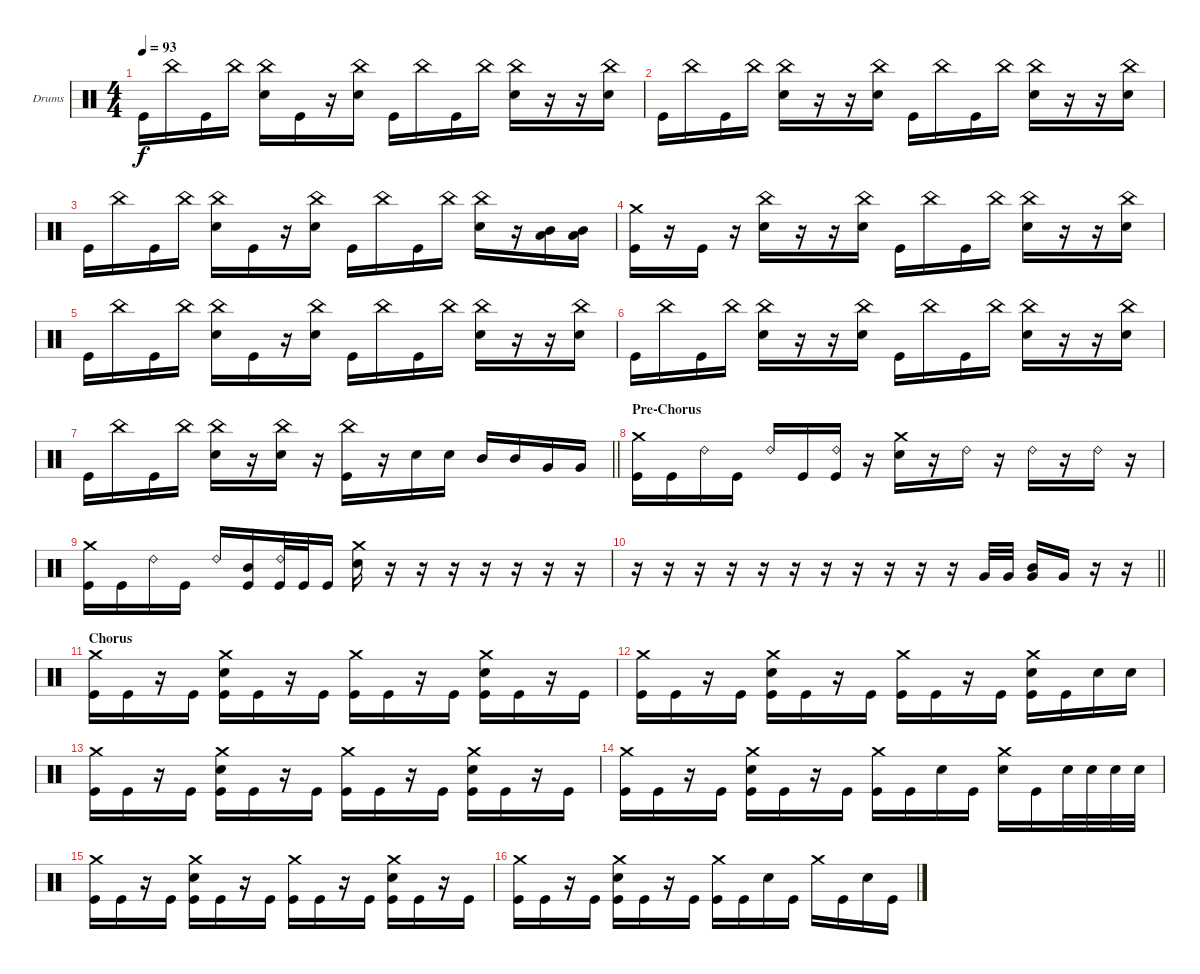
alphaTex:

\bracketExtendMode groupsimilarinstruments
\firstSystemTrackNameOrientation horizontal
\otherSystemsTrackNameOrientation horizontal
\track ("Drumkit" "Drums") {instrument percussion}
\staff {score}
\articulation defaults
\ts (4 4)
\tempo 93
\clef neutral
\scale
0.333333
\ks c "Kick (hit)".16{dy f} "China (hit)".16 "Kick (hit)".16 "China (hit)".16
("Snare (hit) 2" "China (hit)").16 "Kick (hit)".16 r.16 ("Snare (hit) 2" "China (hit)").16 "Kick (hit)".16 "China (hit)".16 "Kick (hit)".16 "China (hit)".16 ("Snare (hit) 2" "China (hit)").16 r.16 r.16 ("Snare (hit) 2" "China (hit)").16 |
\scale
0.333333 "Kick (hit)".16 "China (hit)".16 "Kick (hit)".16 "China (hit)".16 ("Snare (hit) 2" "China (hit)").16 r.16 r.16 ("Snare (hit) 2" "China (hit)").16 "Kick (hit)".16 "China (hit)".16 "Kick (hit)".16 "China (hit)".16 ("Snare (hit) 2" "China (hit)").16 r.16 r.16 ("Snare (hit) 2" "China (hit)").16 |
\scale
0.333333 "Kick (hit)".16 "China (hit)".16 "Kick (hit)".16 "China (hit)".16 ("Snare (hit) 2" "China (hit)").16 "Kick (hit)".16 r.16 ("Snare (hit) 2" "China (hit)").16 "Kick (hit)".16 "China (hit)".16 "Kick (hit)".16 "China (hit)".16 ("Snare (hit) 2" "China (hit)").16 r.16 ("Low Tom (hit)" "Mid Tom (hit)").16 ("Low Tom (hit)" "Mid Tom (hit)").16 |
\scale
0.333333 ("Kick (hit)" "Crash medium (hit)").16 r.16 "Kick (hit)".16 r.16 ("Snare (hit) 2" "China (hit)").16 r.16 r.16 ("Snare (hit) 2" "China (hit)").16 "Kick (hit)".16 "China (hit)".16 "Kick (hit)".16 "China (hit)".16 ("Snare (hit) 2" "China (hit)").16 r.16 r.16 ("Snare (hit) 2" "China (hit)").16 |
\scale
0.333333 "Kick (hit)".16 "China (hit)".16 "Kick (hit)".16 "China (hit)".16 ("Snare (hit) 2" "China (hit)").16 "Kick (hit)".16 r.16 ("Snare (hit) 2" "China (hit)").16 "Kick (hit)".16 "China (hit)".16 "Kick (hit)".16 "China (hit)".16 ("Snare (hit) 2" "China (hit)").16 r.16 r.16 ("Snare (hit) 2" "China (hit)").16 |
\scale
0.333333 "Kick (hit)".16 "China (hit)".16 "Kick (hit)".16 "China (hit)".16 ("Snare (hit) 2" "China (hit)").16 r.16 r.16 ("Snare (hit) 2" "China (hit)").16 "Kick (hit)".16 "China (hit)".16 "Kick (hit)".16 "China (hit)".16 ("Snare (hit) 2" "China (hit)").16 r.16 r.16 ("Snare (hit) 2" "China (hit)").16 |
\scale
0.333333
\barLineRight lightlight "Kick (hit)".16 "China (hit)".16 "Kick (hit)".16 "China (hit)".16
("Snare (hit) 2" "China (hit)").16 r.16 ("Snare (hit) 2" "China (hit)").16 r.16 ("Kick (hit)" "China (hit)").16 r.16 "Snare (hit) 2".16 "Snare (hit) 2".16 "Mid Tom (hit)".16 "Mid Tom (hit)".16 "Very Low Tom (hit)".16 "Very Low Tom (hit)".16 |
\section ("" "Pre-Chorus")
\scale
0.333333 ("Kick (hit)" "Crash medium (hit)").16 "Kick (hit)".16 "Ride (bell) 2".16 "Kick (hit)".16 "Ride (bell) 2".16 "Kick (hit)".16 ("Kick (hit)" "Ride (bell) 2").16 r.16 ("Snare (hit) 2" "Crash medium (hit)").16 r.16 "Ride (bell) 2".16 r.16 "Ride (bell) 2".16 r.16 "Ride (bell) 2".16 r.16 |
\scale
0.333333 ("Kick (hit)" "Crash medium (hit)").16 "Kick (hit)".16 "Ride (bell) 2".16 "Kick (hit)".16 "Ride (bell) 2".16 ("Kick (hit)" "Mid Tom (hit)").16 ("Kick (hit)" "Ride (bell) 2").32 "Kick (hit)".32 "Kick (hit)".16 ("Snare (hit) 2" "Crash medium (hit)").16 r.16 r.16 r.16 r.16 r.16 r.16 r.16 |
\scale
0.333333
\barLineRight lightlight
r.16 r.16 r.16 r.16 r.16 r.16 r.16 r.16 r.16 r.16 r.16 "Very Low Tom (hit)".32 "Very Low Tom (hit)".32 ("Very Low Tom (hit)" "Mid Tom (hit)").16 "Very Low Tom (hit)".16 r.16 r.16 |
\section ("" "Chorus")
\scale
0.333333 ("Kick (hit)" "Crash medium (hit)").16 "Kick (hit)".16 r.16 "Kick (hit)".16 ("Kick (hit)" "Crash medium (hit)" "Snare (hit) 2").16 "Kick (hit)".16 r.16 "Kick (hit)".16 ("Kick (hit)" "Crash medium (hit)").16 "Kick (hit)".16 r.16 "Kick (hit)".16 ("Kick (hit)" "Crash medium (hit)" "Snare (hit) 2").16 "Kick (hit)".16 r.16 "Kick (hit)".16 |
\scale
0.333333 ("Kick (hit)" "Crash medium (hit)").16 "Kick (hit)".16 r.16 "Kick (hit)".16 ("Kick (hit)" "Crash medium (hit)" "Snare (hit) 2").16 "Kick (hit)".16 r.16 "Kick (hit)".16 ("Kick (hit)" "Crash medium (hit)").16 "Kick (hit)".16 r.16 "Kick (hit)".16 ("Kick (hit)" "Crash medium (hit)" "Snare (hit) 2").16 "Kick (hit)".16 "Snare (hit) 2".16 "Snare (hit) 2".16 |
\scale
0.333333 ("Kick (hit)" "Crash medium (hit)").16 "Kick (hit)".16 r.16 "Kick (hit)".16 ("Kick (hit)" "Crash medium (hit)" "Snare (hit) 2").16 "Kick (hit)".16 r.16 "Kick (hit)".16 ("Kick (hit)" "Crash medium (hit)").16 "Kick (hit)".16 r.16 "Kick (hit)".16 ("Kick (hit)" "Crash medium (hit)" "Snare (hit) 2").16 "Kick (hit)".16 r.16 "Kick (hit)".16 |
\scale
0.333333 ("Kick (hit)" "Crash medium (hit)").16 "Kick (hit)".16 r.16 "Kick (hit)".16 ("Kick (hit)" "Crash medium (hit)" "Snare (hit) 2").16 "Kick (hit)".16 r.16 "Kick (hit)".16 ("Kick (hit)" "Crash medium (hit)").16 "Kick (hit)".16 "Snare (hit) 2".16 "Kick (hit)".16 ("Crash medium (hit)" "Snare (hit) 2").16 "Kick (hit)".16 "Snare (hit) 2".32 "Snare (hit) 2".32 "Snare (hit) 2".32 "Snare (hit) 2".32 |
\scale
0.333333 ("Kick (hit)" "Crash medium (hit)").16 "Kick (hit)".16 r.16 "Kick (hit)".16 ("Kick (hit)" "Crash medium (hit)" "Snare (hit) 2").16 "Kick (hit)".16 r.16 "Kick (hit)".16 ("Kick (hit)" "Crash medium (hit)").16 "Kick (hit)".16 r.16 "Kick (hit)".16 ("Kick (hit)" "Crash medium (hit)" "Snare (hit) 2").16 "Kick (hit)".16 r.16 "Kick (hit)".16 |
\scale
0.333333 ("Kick (hit)" "Crash medium (hit)").16 "Kick (hit)".16 r.16 "Kick (hit)".16 ("Kick (hit)" "Crash medium (hit)" "Snare (hit) 2").16 "Kick (hit)".16 r.16 "Kick (hit)".16 ("Kick (hit)" "Crash medium (hit)").16 "Kick (hit)".16 "Snare (hit) 2".16 "Kick (hit)".16 "Crash medium (hit)".16 "Kick (hit)".16 "Snare (hit) 2".16 "Kick (hit)".16
